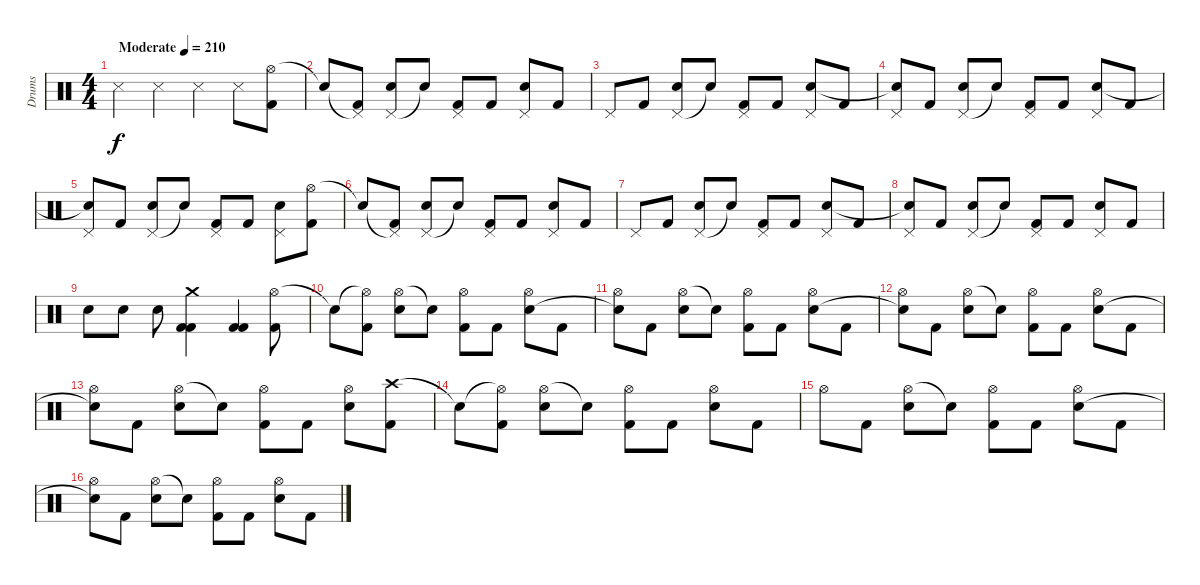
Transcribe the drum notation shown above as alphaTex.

\track ("Drums" "Drums") {instrument percussion}
\staff {score}
\articulation defaults
\ts (4 4)
\tempo (210 "Moderate")
\clef neutral
\ks c "Metronome (hit)".4{dy f} "Metronome (hit)".4 "Metronome (hit)".4 "Metronome (hit)".8
("Hi-Hat (open)" "Kick (hit) 2").8 |
"Snare (hit)"{t}.8 ("Pedal Hi-Hat (hit)"{t} "Kick (hit) 2").8 ("Pedal Hi-Hat (hit)" "Electric Snare (hit)").8 "Snare (hit)"{t}.8 ("Pedal Hi-Hat (hit)" "Kick (hit) 2").8 "Kick (hit) 2".8 ("Pedal Hi-Hat (hit)" "Electric Snare (hit)").8 "Kick (hit) 2".8 |
"Pedal Hi-Hat (hit)".8 "Kick (hit) 2".8 ("Pedal Hi-Hat (hit)" "Electric Snare (hit)").8 "Snare (hit)"{t}.8 ("Pedal Hi-Hat (hit)" "Kick (hit) 2").8 "Kick (hit) 2".8 ("Pedal Hi-Hat (hit)" "Electric Snare (hit)").8 "Kick (hit) 2".8 |
("Pedal Hi-Hat (hit)" "Snare (hit)"{t}).8 "Kick (hit) 2".8 ("Pedal Hi-Hat (hit)" "Electric Snare (hit)").8 "Electric Snare (hit)"{t}.8 ("Pedal Hi-Hat (hit)" "Kick (hit) 2").8 "Kick (hit) 2".8 ("Pedal Hi-Hat (hit)" "Electric Snare (hit)").8 "Kick (hit) 2".8 |
("Pedal Hi-Hat (hit)" "Snare (hit)"{t}).8 "Kick (hit) 2".8 ("Pedal Hi-Hat (hit)" "Electric Snare (hit)").8 "Snare (hit)"{t}.8 ("Pedal Hi-Hat (hit)" "Kick (hit) 2").8 "Kick (hit) 2".8 ("Pedal Hi-Hat (hit)" "Electric Snare (hit)").8 ("Hi-Hat (open)" "Kick (hit) 2").8 |
"Snare (hit)"{t}.8 ("Pedal Hi-Hat (hit)"{t} "Kick (hit) 2").8 ("Pedal Hi-Hat (hit)" "Electric Snare (hit)").8 "Snare (hit)"{t}.8 ("Pedal Hi-Hat (hit)" "Kick (hit) 2").8 "Kick (hit) 2".8 ("Pedal Hi-Hat (hit)" "Electric Snare (hit)").8 "Kick (hit) 2".8 |
"Pedal Hi-Hat (hit)".8 "Kick (hit) 2".8 ("Pedal Hi-Hat (hit)" "Electric Snare (hit)").8 "Snare (hit)"{t}.8 ("Pedal Hi-Hat (hit)" "Kick (hit) 2").8 "Kick (hit) 2".8 ("Pedal Hi-Hat (hit)" "Electric Snare (hit)").8 "Kick (hit) 2".8 |
("Pedal Hi-Hat (hit)" "Snare (hit)"{t}).8 "Kick (hit) 2".8 ("Pedal Hi-Hat (hit)" "Electric Snare (hit)").8 "Electric Snare (hit)"{t}.8 ("Pedal Hi-Hat (hit)" "Kick (hit) 2").8 "Kick (hit) 2".8 ("Pedal Hi-Hat (hit)" "Electric Snare (hit)").8 "Kick (hit) 2".8 |
"Electric Snare (hit)".8 "Electric Snare (hit)".8 "Electric Snare (hit)".8 ("Crash medium (hit)" "Kick (hit) 2" "Kick (hit) 2").4 ("Kick (hit) 2" "Kick (hit) 2").4 ("Hi-Hat (open)" "Kick (hit) 2").8 |
"Snare (hit)"{t}.8 ("Hi-Hat (open)"{t} "Kick (hit) 2").8 ("Hi-Hat (open)" "Electric Snare (hit)").8 "Snare (hit)"{t}.8 ("Hi-Hat (open)" "Kick (hit) 2").8 "Kick (hit) 2".8 ("Hi-Hat (open)" "Electric Snare (hit)").8 "Kick (hit) 2".8 |
("Hi-Hat (open)" "Snare (hit)"{t}).8 "Kick (hit) 2".8 ("Hi-Hat (open)" "Electric Snare (hit)").8 "Snare (hit)"{t}.8 ("Hi-Hat (open)" "Kick (hit) 2").8 "Kick (hit) 2".8 ("Hi-Hat (open)" "Electric Snare (hit)").8 "Kick (hit) 2".8 |
("Hi-Hat (open)" "Snare (hit)"{t}).8 "Kick (hit) 2".8 ("Hi-Hat (open)" "Electric Snare (hit)").8 "Electric Snare (hit)"{t}.8 ("Hi-Hat (open)" "Kick (hit) 2").8 "Kick (hit) 2".8 ("Hi-Hat (open)" "Electric Snare (hit)").8 "Kick (hit) 2".8 |
("Hi-Hat (open)" "Snare (hit)"{t}).8 "Kick (hit) 2".8 ("Hi-Hat (open)" "Electric Snare (hit)").8 "Snare (hit)"{t}.8 ("Hi-Hat (open)" "Kick (hit) 2").8 "Kick (hit) 2".8 ("Hi-Hat (open)" "Electric Snare (hit)").8 ("Crash high (hit)" "Kick (hit) 2").8 |
"Snare (hit)"{t}.8 ("Hi-Hat (open)"{t} "Kick (hit) 2").8 ("Hi-Hat (open)" "Electric Snare (hit)").8 "Snare (hit)"{t}.8 ("Hi-Hat (open)" "Kick (hit) 2").8 "Kick (hit) 2".8 ("Hi-Hat (open)" "Electric Snare (hit)").8 "Kick (hit) 2".8 |
"Hi-Hat (open)".8 "Kick (hit) 2".8 ("Hi-Hat (open)" "Electric Snare (hit)").8 "Snare (hit)"{t}.8 ("Hi-Hat (open)" "Kick (hit) 2").8 "Kick (hit) 2".8 ("Hi-Hat (open)" "Electric Snare (hit)").8 "Kick (hit) 2".8 |
("Hi-Hat (open)" "Snare (hit)"{t}).8 "Kick (hit) 2".8 ("Hi-Hat (open)" "Electric Snare (hit)").8 "Electric Snare (hit)"{t}.8 ("Hi-Hat (open)" "Kick (hit) 2").8 "Kick (hit) 2".8 ("Hi-Hat (open)" "Electric Snare (hit)").8 "Kick (hit) 2".8
